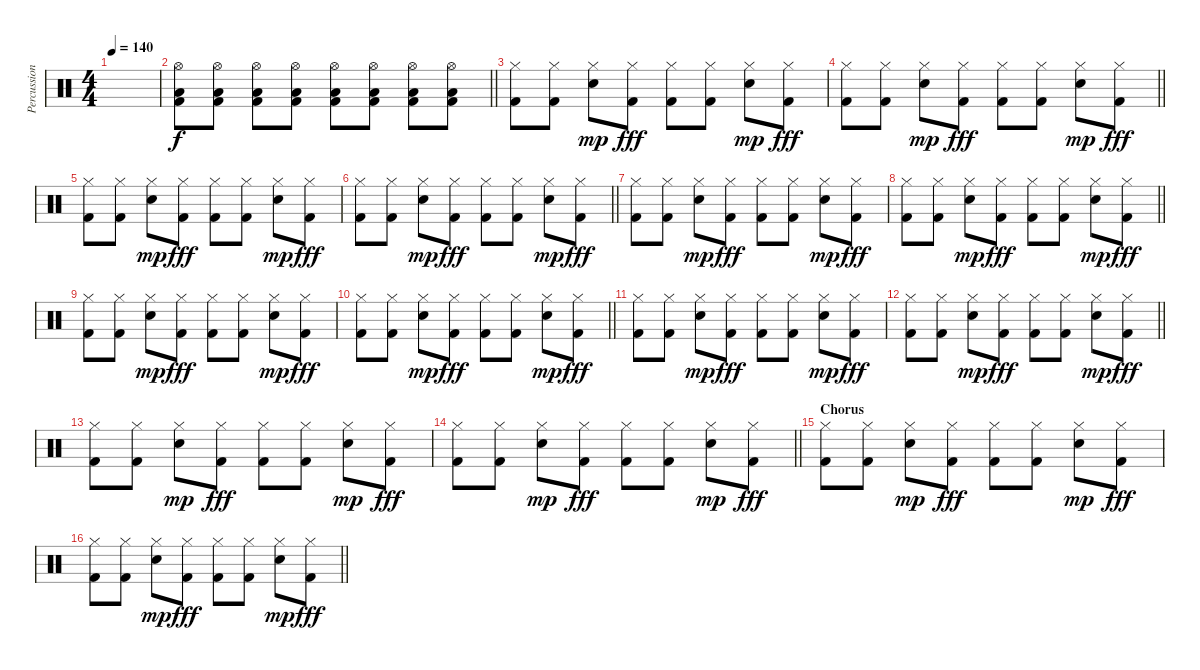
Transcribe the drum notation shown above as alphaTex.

\track ("Percussioni" "Percussion") {instrument percussion}
\staff {score}
\articulation defaults
\ts (4 4)
\tempo 140
\clef neutral
\ks c
|
\barLineRight lightlight
("Hi-Hat (open)" "Low Floor Tom (hit)" "Kick (hit) 2").8{volume 14} ("Hi-Hat (open)" "Low Floor Tom (hit)" "Kick (hit) 2").8 ("Hi-Hat (open)" "Low Floor Tom (hit)" "Kick (hit) 2").8 ("Hi-Hat (open)" "Low Floor Tom (hit)" "Kick (hit) 2").8 ("Hi-Hat (open)" "Low Floor Tom (hit)" "Kick (hit) 2").8 ("Hi-Hat (open)" "Low Floor Tom (hit)" "Kick (hit) 2").8 ("Hi-Hat (open)" "Low Floor Tom (hit)" "Kick (hit) 2").8 ("Hi-Hat (open)" "Low Floor Tom (hit)" "Kick (hit) 2").8 |
("Hi-Hat (closed)" "Kick (hit) 2").8 ("Hi-Hat (closed)" "Kick (hit) 2").8 ("Hi-Hat (closed)" "Snare (hit) 2").8{dy mp} ("Hi-Hat (closed)" "Kick (hit) 2").8{dy fff} ("Hi-Hat (closed)" "Kick (hit) 2").8 ("Hi-Hat (closed)" "Kick (hit) 2").8 ("Hi-Hat (closed)" "Snare (hit) 2").8{dy mp} ("Hi-Hat (closed)" "Kick (hit) 2").8{dy fff} |
\barLineRight lightlight
("Hi-Hat (closed)" "Kick (hit) 2").8 ("Hi-Hat (closed)" "Kick (hit) 2").8 ("Hi-Hat (closed)" "Snare (hit) 2").8{dy mp} ("Hi-Hat (closed)" "Kick (hit) 2").8{dy fff} ("Hi-Hat (closed)" "Kick (hit) 2").8 ("Hi-Hat (closed)" "Kick (hit) 2").8 ("Hi-Hat (closed)" "Snare (hit) 2").8{dy mp} ("Hi-Hat (closed)" "Kick (hit) 2").8{dy fff} |
("Hi-Hat (closed)" "Kick (hit) 2").8 ("Hi-Hat (closed)" "Kick (hit) 2").8 ("Hi-Hat (closed)" "Snare (hit) 2").8{dy mp} ("Hi-Hat (closed)" "Kick (hit) 2").8{dy fff} ("Hi-Hat (closed)" "Kick (hit) 2").8 ("Hi-Hat (closed)" "Kick (hit) 2").8 ("Hi-Hat (closed)" "Snare (hit) 2").8{dy mp} ("Hi-Hat (closed)" "Kick (hit) 2").8{dy fff} |
\barLineRight lightlight
("Hi-Hat (closed)" "Kick (hit) 2").8 ("Hi-Hat (closed)" "Kick (hit) 2").8 ("Hi-Hat (closed)" "Snare (hit) 2").8{dy mp} ("Hi-Hat (closed)" "Kick (hit) 2").8{dy fff} ("Hi-Hat (closed)" "Kick (hit) 2").8 ("Hi-Hat (closed)" "Kick (hit) 2").8 ("Hi-Hat (closed)" "Snare (hit) 2").8{dy mp} ("Hi-Hat (closed)" "Kick (hit) 2").8{dy fff} |
("Hi-Hat (closed)" "Kick (hit) 2").8 ("Hi-Hat (closed)" "Kick (hit) 2").8 ("Hi-Hat (closed)" "Snare (hit) 2").8{dy mp} ("Hi-Hat (closed)" "Kick (hit) 2").8{dy fff} ("Hi-Hat (closed)" "Kick (hit) 2").8 ("Hi-Hat (closed)" "Kick (hit) 2").8 ("Hi-Hat (closed)" "Snare (hit) 2").8{dy mp} ("Hi-Hat (closed)" "Kick (hit) 2").8{dy fff} |
\barLineRight lightlight
("Hi-Hat (closed)" "Kick (hit) 2").8 ("Hi-Hat (closed)" "Kick (hit) 2").8 ("Hi-Hat (closed)" "Snare (hit) 2").8{dy mp} ("Hi-Hat (closed)" "Kick (hit) 2").8{dy fff} ("Hi-Hat (closed)" "Kick (hit) 2").8 ("Hi-Hat (closed)" "Kick (hit) 2").8 ("Hi-Hat (closed)" "Snare (hit) 2").8{dy mp} ("Hi-Hat (closed)" "Kick (hit) 2").8{dy fff} |
("Hi-Hat (closed)" "Kick (hit) 2").8 ("Hi-Hat (closed)" "Kick (hit) 2").8 ("Hi-Hat (closed)" "Snare (hit) 2").8{dy mp} ("Hi-Hat (closed)" "Kick (hit) 2").8{dy fff} ("Hi-Hat (closed)" "Kick (hit) 2").8 ("Hi-Hat (closed)" "Kick (hit) 2").8 ("Hi-Hat (closed)" "Snare (hit) 2").8{dy mp} ("Hi-Hat (closed)" "Kick (hit) 2").8{dy fff} |
\barLineRight lightlight
("Hi-Hat (closed)" "Kick (hit) 2").8 ("Hi-Hat (closed)" "Kick (hit) 2").8 ("Hi-Hat (closed)" "Snare (hit) 2").8{dy mp} ("Hi-Hat (closed)" "Kick (hit) 2").8{dy fff} ("Hi-Hat (closed)" "Kick (hit) 2").8 ("Hi-Hat (closed)" "Kick (hit) 2").8 ("Hi-Hat (closed)" "Snare (hit) 2").8{dy mp} ("Hi-Hat (closed)" "Kick (hit) 2").8{dy fff} |
("Hi-Hat (closed)" "Kick (hit) 2").8 ("Hi-Hat (closed)" "Kick (hit) 2").8 ("Hi-Hat (closed)" "Snare (hit) 2").8{dy mp} ("Hi-Hat (closed)" "Kick (hit) 2").8{dy fff} ("Hi-Hat (closed)" "Kick (hit) 2").8 ("Hi-Hat (closed)" "Kick (hit) 2").8 ("Hi-Hat (closed)" "Snare (hit) 2").8{dy mp} ("Hi-Hat (closed)" "Kick (hit) 2").8{dy fff} |
\barLineRight lightlight
("Hi-Hat (closed)" "Kick (hit) 2").8 ("Hi-Hat (closed)" "Kick (hit) 2").8 ("Hi-Hat (closed)" "Snare (hit) 2").8{dy mp} ("Hi-Hat (closed)" "Kick (hit) 2").8{dy fff} ("Hi-Hat (closed)" "Kick (hit) 2").8 ("Hi-Hat (closed)" "Kick (hit) 2").8 ("Hi-Hat (closed)" "Snare (hit) 2").8{dy mp} ("Hi-Hat (closed)" "Kick (hit) 2").8{dy fff} |
("Hi-Hat (closed)" "Kick (hit) 2").8 ("Hi-Hat (closed)" "Kick (hit) 2").8 ("Hi-Hat (closed)" "Snare (hit) 2").8{dy mp} ("Hi-Hat (closed)" "Kick (hit) 2").8{dy fff} ("Hi-Hat (closed)" "Kick (hit) 2").8 ("Hi-Hat (closed)" "Kick (hit) 2").8 ("Hi-Hat (closed)" "Snare (hit) 2").8{dy mp} ("Hi-Hat (closed)" "Kick (hit) 2").8{dy fff} |
\barLineRight lightlight
("Hi-Hat (closed)" "Kick (hit) 2").8 ("Hi-Hat (closed)" "Kick (hit) 2").8 ("Hi-Hat (closed)" "Snare (hit) 2").8{dy mp} ("Hi-Hat (closed)" "Kick (hit) 2").8{dy fff} ("Hi-Hat (closed)" "Kick (hit) 2").8 ("Hi-Hat (closed)" "Kick (hit) 2").8 ("Hi-Hat (closed)" "Snare (hit) 2").8{dy mp} ("Hi-Hat (closed)" "Kick (hit) 2").8{dy fff} |
\section ("" "Chorus")
("Hi-Hat (closed)" "Kick (hit) 2").8 ("Hi-Hat (closed)" "Kick (hit) 2").8 ("Hi-Hat (closed)" "Snare (hit) 2").8{dy mp} ("Hi-Hat (closed)" "Kick (hit) 2").8{dy fff} ("Hi-Hat (closed)" "Kick (hit) 2").8 ("Hi-Hat (closed)" "Kick (hit) 2").8 ("Hi-Hat (closed)" "Snare (hit) 2").8{dy mp} ("Hi-Hat (closed)" "Kick (hit) 2").8{dy fff} |
\barLineRight lightlight
("Hi-Hat (closed)" "Kick (hit) 2").8 ("Hi-Hat (closed)" "Kick (hit) 2").8 ("Hi-Hat (closed)" "Snare (hit) 2").8{dy mp} ("Hi-Hat (closed)" "Kick (hit) 2").8{dy fff} ("Hi-Hat (closed)" "Kick (hit) 2").8 ("Hi-Hat (closed)" "Kick (hit) 2").8 ("Hi-Hat (closed)" "Snare (hit) 2").8{dy mp} ("Hi-Hat (closed)" "Kick (hit) 2").8{dy fff}
